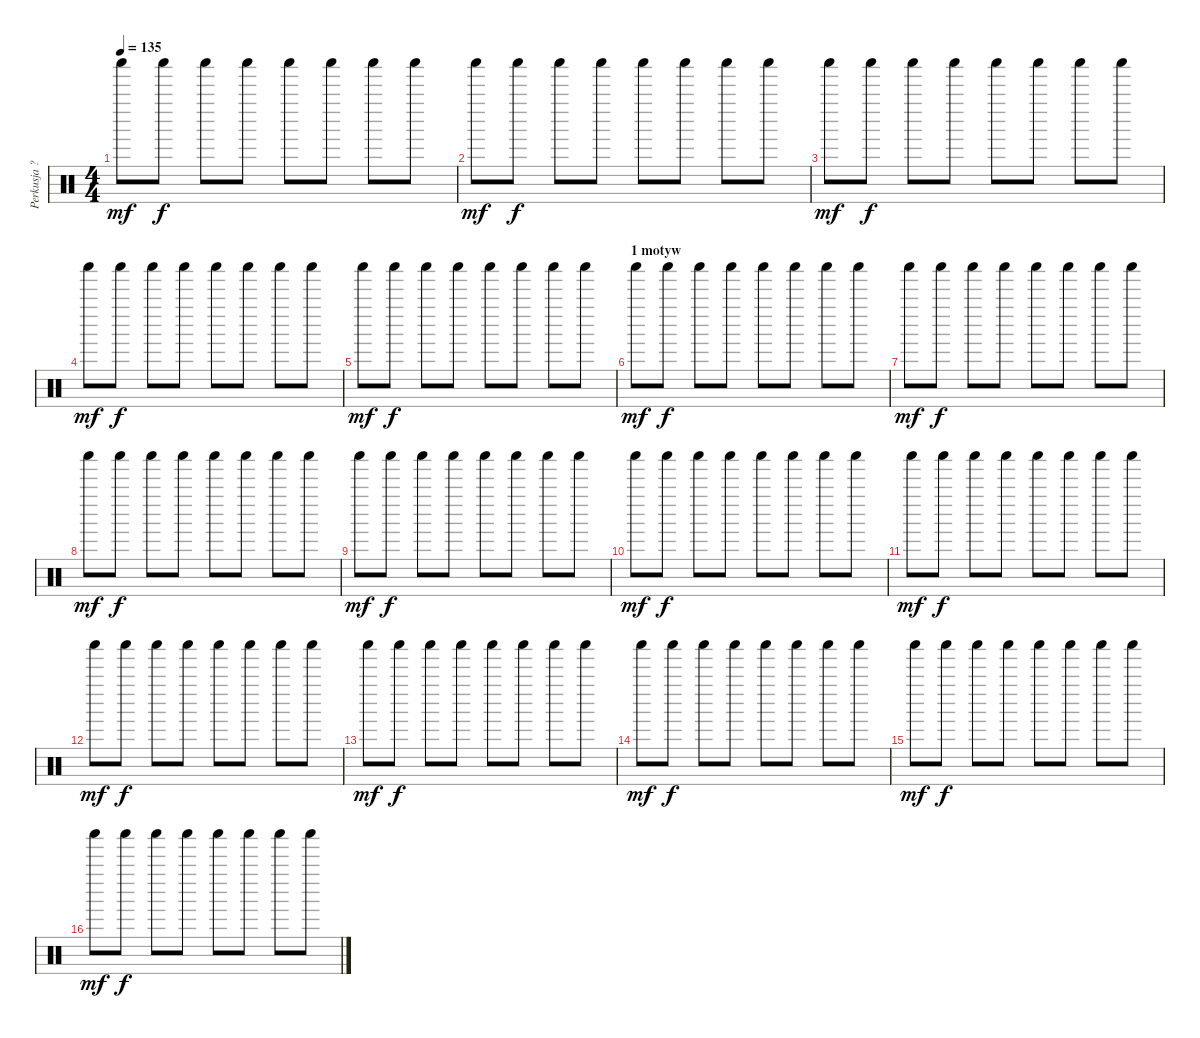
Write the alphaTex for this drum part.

\track ("Perkusja ?" "Perkusja ?") {instrument percussion}
\staff {score}
\articulation defaults
\ts (4 4)
\tempo 135
\clef neutral
\ks c "Shaker (hit)".8{dy mf} "Shaker (hit)".8{dy f} "Shaker (hit)".8 "Shaker (hit)".8 "Shaker (hit)".8 "Shaker (hit)".8 "Shaker (hit)".8 "Shaker (hit)".8
|
"Shaker (hit)".8{dy mf} "Shaker (hit)".8{dy f} "Shaker (hit)".8 "Shaker (hit)".8 "Shaker (hit)".8 "Shaker (hit)".8 "Shaker (hit)".8 "Shaker (hit)".8 |
"Shaker (hit)".8{dy mf} "Shaker (hit)".8{dy f} "Shaker (hit)".8 "Shaker (hit)".8 "Shaker (hit)".8 "Shaker (hit)".8 "Shaker (hit)".8 "Shaker (hit)".8 |
"Shaker (hit)".8{dy mf} "Shaker (hit)".8{dy f} "Shaker (hit)".8 "Shaker (hit)".8 "Shaker (hit)".8 "Shaker (hit)".8 "Shaker (hit)".8 "Shaker (hit)".8 |
"Shaker (hit)".8{dy mf} "Shaker (hit)".8{dy f} "Shaker (hit)".8 "Shaker (hit)".8 "Shaker (hit)".8 "Shaker (hit)".8 "Shaker (hit)".8 "Shaker (hit)".8 |
\section ("" "1 motyw")
"Shaker (hit)".8{dy mf} "Shaker (hit)".8{dy f} "Shaker (hit)".8 "Shaker (hit)".8 "Shaker (hit)".8 "Shaker (hit)".8 "Shaker (hit)".8 "Shaker (hit)".8 |
"Shaker (hit)".8{dy mf} "Shaker (hit)".8{dy f} "Shaker (hit)".8 "Shaker (hit)".8 "Shaker (hit)".8 "Shaker (hit)".8 "Shaker (hit)".8 "Shaker (hit)".8 |
"Shaker (hit)".8{dy mf} "Shaker (hit)".8{dy f} "Shaker (hit)".8 "Shaker (hit)".8 "Shaker (hit)".8 "Shaker (hit)".8 "Shaker (hit)".8 "Shaker (hit)".8 |
"Shaker (hit)".8{dy mf} "Shaker (hit)".8{dy f} "Shaker (hit)".8 "Shaker (hit)".8 "Shaker (hit)".8 "Shaker (hit)".8 "Shaker (hit)".8 "Shaker (hit)".8 |
"Shaker (hit)".8{dy mf} "Shaker (hit)".8{dy f} "Shaker (hit)".8 "Shaker (hit)".8 "Shaker (hit)".8 "Shaker (hit)".8 "Shaker (hit)".8 "Shaker (hit)".8 |
"Shaker (hit)".8{dy mf} "Shaker (hit)".8{dy f} "Shaker (hit)".8 "Shaker (hit)".8 "Shaker (hit)".8 "Shaker (hit)".8 "Shaker (hit)".8 "Shaker (hit)".8 |
"Shaker (hit)".8{dy mf} "Shaker (hit)".8{dy f} "Shaker (hit)".8 "Shaker (hit)".8 "Shaker (hit)".8 "Shaker (hit)".8 "Shaker (hit)".8 "Shaker (hit)".8 |
"Shaker (hit)".8{dy mf} "Shaker (hit)".8{dy f} "Shaker (hit)".8 "Shaker (hit)".8 "Shaker (hit)".8 "Shaker (hit)".8 "Shaker (hit)".8 "Shaker (hit)".8 |
"Shaker (hit)".8{dy mf} "Shaker (hit)".8{dy f} "Shaker (hit)".8 "Shaker (hit)".8 "Shaker (hit)".8 "Shaker (hit)".8 "Shaker (hit)".8 "Shaker (hit)".8 |
"Shaker (hit)".8{dy mf} "Shaker (hit)".8{dy f} "Shaker (hit)".8 "Shaker (hit)".8 "Shaker (hit)".8 "Shaker (hit)".8 "Shaker (hit)".8 "Shaker (hit)".8 |
"Shaker (hit)".8{dy mf} "Shaker (hit)".8{dy f} "Shaker (hit)".8 "Shaker (hit)".8 "Shaker (hit)".8 "Shaker (hit)".8 "Shaker (hit)".8 "Shaker (hit)".8
